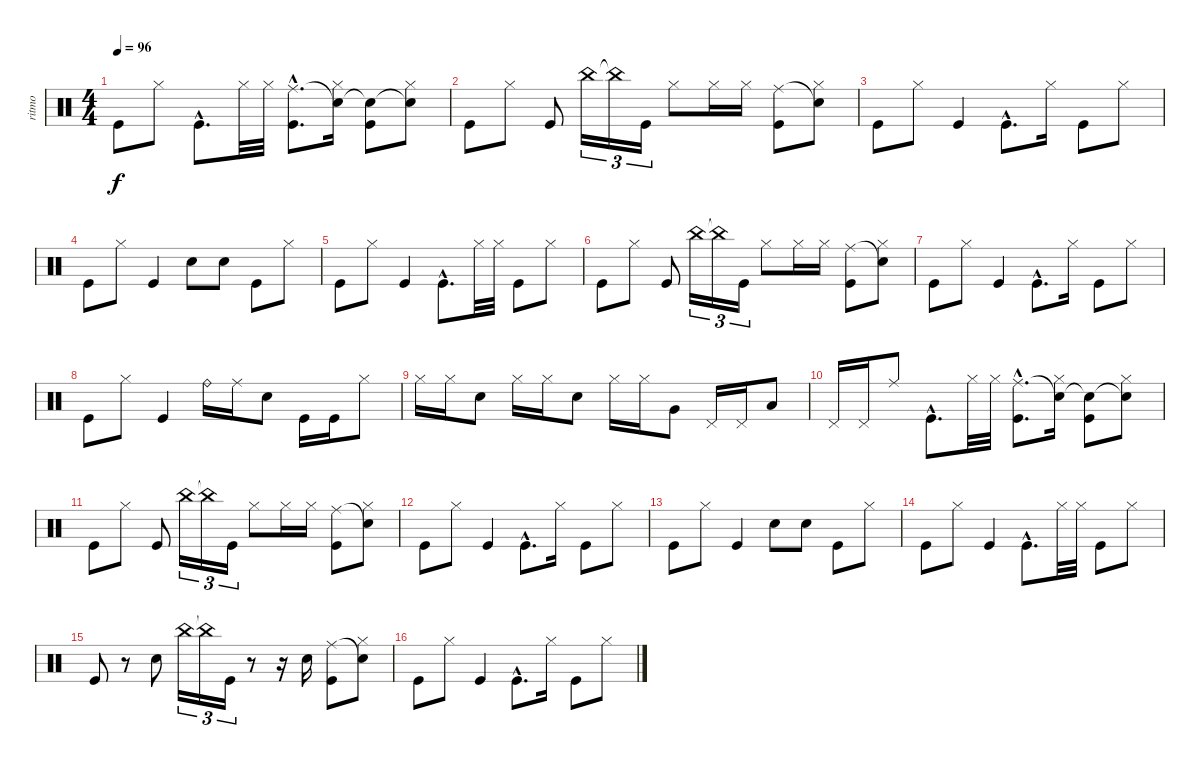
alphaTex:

\track ("ritmo" "ritmo") {instrument percussion}
\staff {score}
\articulation defaults
\ts (4 4)
\tempo 96
\clef neutral
\ks c "Kick (hit)".8{dy f} "Hi-Hat (closed)".8 "Kick (hit)"{hac}.8{d} "Hi-Hat (closed)".32 "Hi-Hat (closed)".32
("Kick (hit)"{hac} "Ride (middle)"{hac}).8{d} ("Hi-Hat (closed)" "Snare (hit)"{t}).16 ("Kick (hit)" "Snare (hit)"{t}).8 ("Hi-Hat (closed)" "Snare (hit)"{t}).8 |
"Kick (hit)".8 "Hi-Hat (closed)".8 "Kick (hit)".8 "China (hit)".16{tu (3 2)} "China (hit)"{t}.16{tu (3 2)} "Kick (hit)".16{tu (3 2)} "Hi-Hat (closed)".8 "Hi-Hat (closed)".16 "Hi-Hat (closed)".16 ("Kick (hit)" "Ride (middle)").8 ("Hi-Hat (closed)" "Snare (hit)"{t}).8 |
"Kick (hit)".8 "Hi-Hat (closed)".8 "Kick (hit)".4 "Kick (hit)"{hac}.8{d} "Hi-Hat (closed)".16 "Kick (hit)".8 "Hi-Hat (closed)".8 |
"Kick (hit)".8 "Hi-Hat (closed)".8 "Kick (hit)".4 "Snare (hit) 2".8 "Snare (hit) 2".8 "Kick (hit)".8 "Hi-Hat (closed)".8 |
"Kick (hit)".8 "Hi-Hat (closed)".8 "Kick (hit)".4 "Kick (hit)"{hac}.8{d} "Hi-Hat (closed)".32 "Hi-Hat (closed)".32 "Kick (hit)".8 "Hi-Hat (closed)".8 |
"Kick (hit)".8 "Hi-Hat (closed)".8 "Kick (hit)".8 "China (hit)".16{tu (3 2)} "China (hit)"{t}.16{tu (3 2)} "Kick (hit)".16{tu (3 2)} "Hi-Hat (closed)".8 "Hi-Hat (closed)".16 "Hi-Hat (closed)".16 ("Kick (hit)" "Ride (middle)").8 ("Hi-Hat (closed)" "Snare (hit)"{t}).8 |
"Kick (hit)".8 "Hi-Hat (closed)".8 "Kick (hit)".4 "Kick (hit)"{hac}.8{d} "Hi-Hat (closed)".16 "Kick (hit)".8 "Hi-Hat (closed)".8 |
"Kick (hit)".8 "Hi-Hat (closed)".8 "Kick (hit)".4 "Ride (bell)".16 "Ride (middle)".16 "Snare (hit) 2".8 "Kick (hit)".16 "Kick (hit)".16 "Hi-Hat (closed)".8 |
"Hi-Hat (closed)".16 "Hi-Hat (closed)".16 "Snare (hit) 2".8 "Hi-Hat (closed)".16 "Hi-Hat (closed)".16 "Electric Snare (hit)".8 "Hi-Hat (closed)".16 "Hi-Hat (closed)".16 "Very Low Tom (hit)".8 "Pedal Hi-Hat (hit)".16 "Pedal Hi-Hat (hit)".16 "Low Tom (hit)".8 |
"Pedal Hi-Hat (hit)".16 "Pedal Hi-Hat (hit)".16 "Ride (middle)".8 "Kick (hit)"{hac}.8{d} "Hi-Hat (closed)".32 "Hi-Hat (closed)".32 ("Kick (hit)"{hac} "Ride (middle)"{hac}).8{d} ("Hi-Hat (closed)" "Snare (hit)"{t}).16 ("Kick (hit)" "Snare (hit)"{t}).8 ("Hi-Hat (closed)" "Snare (hit)"{t}).8 |
"Kick (hit)".8 "Hi-Hat (closed)".8 "Kick (hit)".8 "China (hit)".16{tu (3 2)} "China (hit)"{t}.16{tu (3 2)} "Kick (hit)".16{tu (3 2)} "Hi-Hat (closed)".8 "Hi-Hat (closed)".16 "Hi-Hat (closed)".16 ("Kick (hit)" "Ride (middle)").8 ("Hi-Hat (closed)" "Snare (hit)"{t}).8 |
"Kick (hit)".8 "Hi-Hat (closed)".8 "Kick (hit)".4 "Kick (hit)"{hac}.8{d} "Hi-Hat (closed)".16 "Kick (hit)".8 "Hi-Hat (closed)".8 |
"Kick (hit)".8 "Hi-Hat (closed)".8 "Kick (hit)".4 "Snare (hit) 2".8 "Snare (hit) 2".8 "Kick (hit)".8 "Hi-Hat (closed)".8 |
"Kick (hit)".8 "Hi-Hat (closed)".8 "Kick (hit)".4 "Kick (hit)"{hac}.8{d} "Hi-Hat (closed)".32 "Hi-Hat (closed)".32 "Kick (hit)".8 "Hi-Hat (closed)".8 |
"Kick (hit)".8 r.8 "Snare (hit) 2".8 "China (hit)".16{tu (3 2)} "China (hit)"{t}.16{tu (3 2)} "Kick (hit)".16{tu (3 2)} r.8 r.16 "Snare (hit) 2".16 ("Kick (hit)" "Ride (middle)").8 ("Hi-Hat (closed)" "Snare (hit)"{t}).8 |
"Kick (hit)".8 "Hi-Hat (closed)".8 "Kick (hit)".4 "Kick (hit)"{hac}.8{d} "Hi-Hat (closed)".16 "Kick (hit)".8 "Hi-Hat (closed)".8
